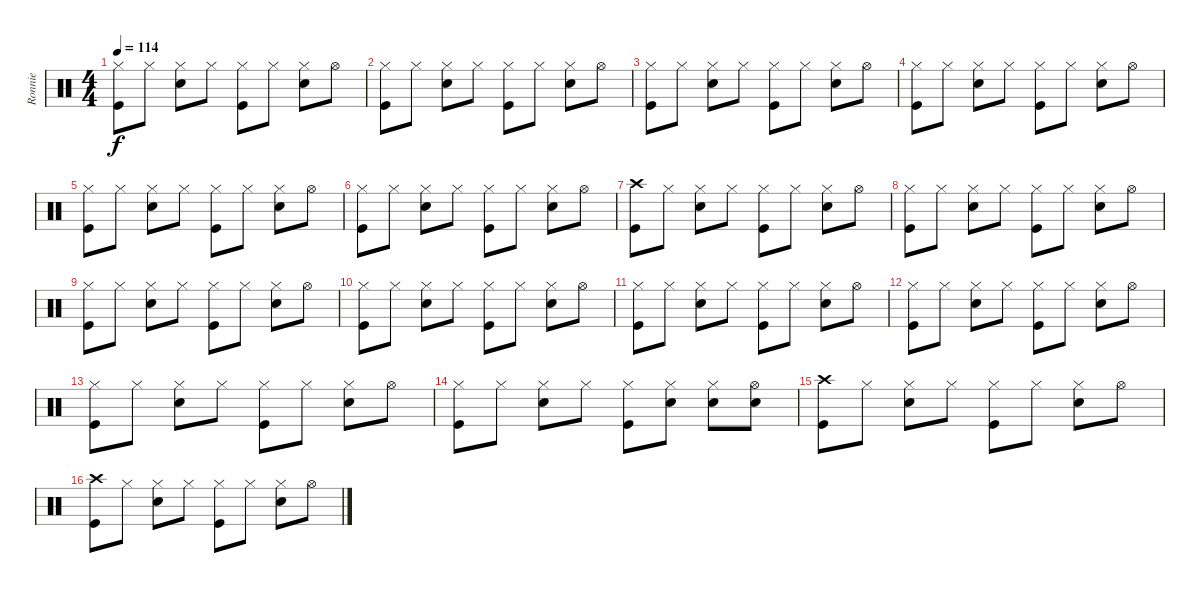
\track ("Ronnie" "Ronnie") {instrument percussion}
\staff {score}
\articulation defaults
\ts (4 4)
\tempo 114
\clef neutral
\ks c
("Hi-Hat (closed)" "Kick (hit)").8{dy f} "Hi-Hat (closed)".8 ("Hi-Hat (closed)" "Electric Snare (hit)").8 "Hi-Hat (closed)".8 ("Hi-Hat (closed)" "Kick (hit)").8 "Hi-Hat (closed)".8 ("Hi-Hat (closed)" "Electric Snare (hit)").8 "Hi-Hat (open)".8 |
("Hi-Hat (closed)" "Kick (hit)").8 "Hi-Hat (closed)".8 ("Hi-Hat (closed)" "Electric Snare (hit)").8 "Hi-Hat (closed)".8 ("Hi-Hat (closed)" "Kick (hit)").8 "Hi-Hat (closed)".8 ("Hi-Hat (closed)" "Electric Snare (hit)").8 "Hi-Hat (open)".8 |
("Hi-Hat (closed)" "Kick (hit)").8 "Hi-Hat (closed)".8 ("Hi-Hat (closed)" "Electric Snare (hit)").8 "Hi-Hat (closed)".8 ("Hi-Hat (closed)" "Kick (hit)").8 "Hi-Hat (closed)".8 ("Hi-Hat (closed)" "Electric Snare (hit)").8 "Hi-Hat (open)".8 |
("Hi-Hat (closed)" "Kick (hit)").8 "Hi-Hat (closed)".8 ("Hi-Hat (closed)" "Electric Snare (hit)").8 "Hi-Hat (closed)".8 ("Hi-Hat (closed)" "Kick (hit)").8 "Hi-Hat (closed)".8 ("Hi-Hat (closed)" "Electric Snare (hit)").8 "Hi-Hat (open)".8 |
("Hi-Hat (closed)" "Kick (hit)").8 "Hi-Hat (closed)".8 ("Hi-Hat (closed)" "Electric Snare (hit)").8 "Hi-Hat (closed)".8 ("Hi-Hat (closed)" "Kick (hit)").8 "Hi-Hat (closed)".8 ("Hi-Hat (closed)" "Electric Snare (hit)").8 "Hi-Hat (open)".8 |
("Hi-Hat (closed)" "Kick (hit)").8 "Hi-Hat (closed)".8 ("Hi-Hat (closed)" "Electric Snare (hit)").8 "Hi-Hat (closed)".8 ("Hi-Hat (closed)" "Kick (hit)").8 "Hi-Hat (closed)".8 ("Hi-Hat (closed)" "Electric Snare (hit)").8 "Hi-Hat (open)".8 |
("Crash high (hit)" "Kick (hit)").8 "Hi-Hat (closed)".8 ("Hi-Hat (closed)" "Electric Snare (hit)").8 "Hi-Hat (closed)".8 ("Hi-Hat (closed)" "Kick (hit)").8 "Hi-Hat (closed)".8 ("Hi-Hat (closed)" "Electric Snare (hit)").8 "Hi-Hat (open)".8 |
("Hi-Hat (closed)" "Kick (hit)").8 "Hi-Hat (closed)".8 ("Hi-Hat (closed)" "Electric Snare (hit)").8 "Hi-Hat (closed)".8 ("Hi-Hat (closed)" "Kick (hit)").8 "Hi-Hat (closed)".8 ("Hi-Hat (closed)" "Electric Snare (hit)").8 "Hi-Hat (open)".8 |
("Hi-Hat (closed)" "Kick (hit)").8 "Hi-Hat (closed)".8 ("Hi-Hat (closed)" "Electric Snare (hit)").8 "Hi-Hat (closed)".8 ("Hi-Hat (closed)" "Kick (hit)").8 "Hi-Hat (closed)".8 ("Hi-Hat (closed)" "Electric Snare (hit)").8 "Hi-Hat (open)".8 |
("Hi-Hat (closed)" "Kick (hit)").8 "Hi-Hat (closed)".8 ("Hi-Hat (closed)" "Electric Snare (hit)").8 "Hi-Hat (closed)".8 ("Hi-Hat (closed)" "Kick (hit)").8 "Hi-Hat (closed)".8 ("Hi-Hat (closed)" "Electric Snare (hit)").8 "Hi-Hat (open)".8 |
("Hi-Hat (closed)" "Kick (hit)").8 "Hi-Hat (closed)".8 ("Hi-Hat (closed)" "Electric Snare (hit)").8 "Hi-Hat (closed)".8 ("Hi-Hat (closed)" "Kick (hit)").8 "Hi-Hat (closed)".8 ("Hi-Hat (closed)" "Electric Snare (hit)").8 "Hi-Hat (open)".8 |
("Hi-Hat (closed)" "Kick (hit)").8 "Hi-Hat (closed)".8 ("Hi-Hat (closed)" "Electric Snare (hit)").8 "Hi-Hat (closed)".8 ("Hi-Hat (closed)" "Kick (hit)").8 "Hi-Hat (closed)".8 ("Hi-Hat (closed)" "Electric Snare (hit)").8 "Hi-Hat (open)".8 |
("Hi-Hat (closed)" "Kick (hit)").8 "Hi-Hat (closed)".8 ("Hi-Hat (closed)" "Electric Snare (hit)").8 "Hi-Hat (closed)".8 ("Hi-Hat (closed)" "Kick (hit)").8 "Hi-Hat (closed)".8 ("Hi-Hat (closed)" "Electric Snare (hit)").8 "Hi-Hat (open)".8 |
("Hi-Hat (closed)" "Kick (hit)").8 "Hi-Hat (closed)".8 ("Hi-Hat (closed)" "Electric Snare (hit)").8 "Hi-Hat (closed)".8 ("Hi-Hat (closed)" "Kick (hit)").8 ("Hi-Hat (closed)" "Electric Snare (hit)").8 ("Hi-Hat (closed)" "Electric Snare (hit)").8 ("Hi-Hat (open)" "Electric Snare (hit)").8 |
("Crash high (hit)" "Kick (hit)").8 "Hi-Hat (closed)".8 ("Hi-Hat (closed)" "Electric Snare (hit)").8 "Hi-Hat (closed)".8 ("Hi-Hat (closed)" "Kick (hit)").8 "Hi-Hat (closed)".8 ("Hi-Hat (closed)" "Electric Snare (hit)").8 "Hi-Hat (open)".8 |
("Crash high (hit)" "Kick (hit)").8 "Hi-Hat (closed)".8 ("Hi-Hat (closed)" "Electric Snare (hit)").8 "Hi-Hat (closed)".8 ("Hi-Hat (closed)" "Kick (hit)").8 "Hi-Hat (closed)".8 ("Hi-Hat (closed)" "Electric Snare (hit)").8 "Hi-Hat (open)".8
